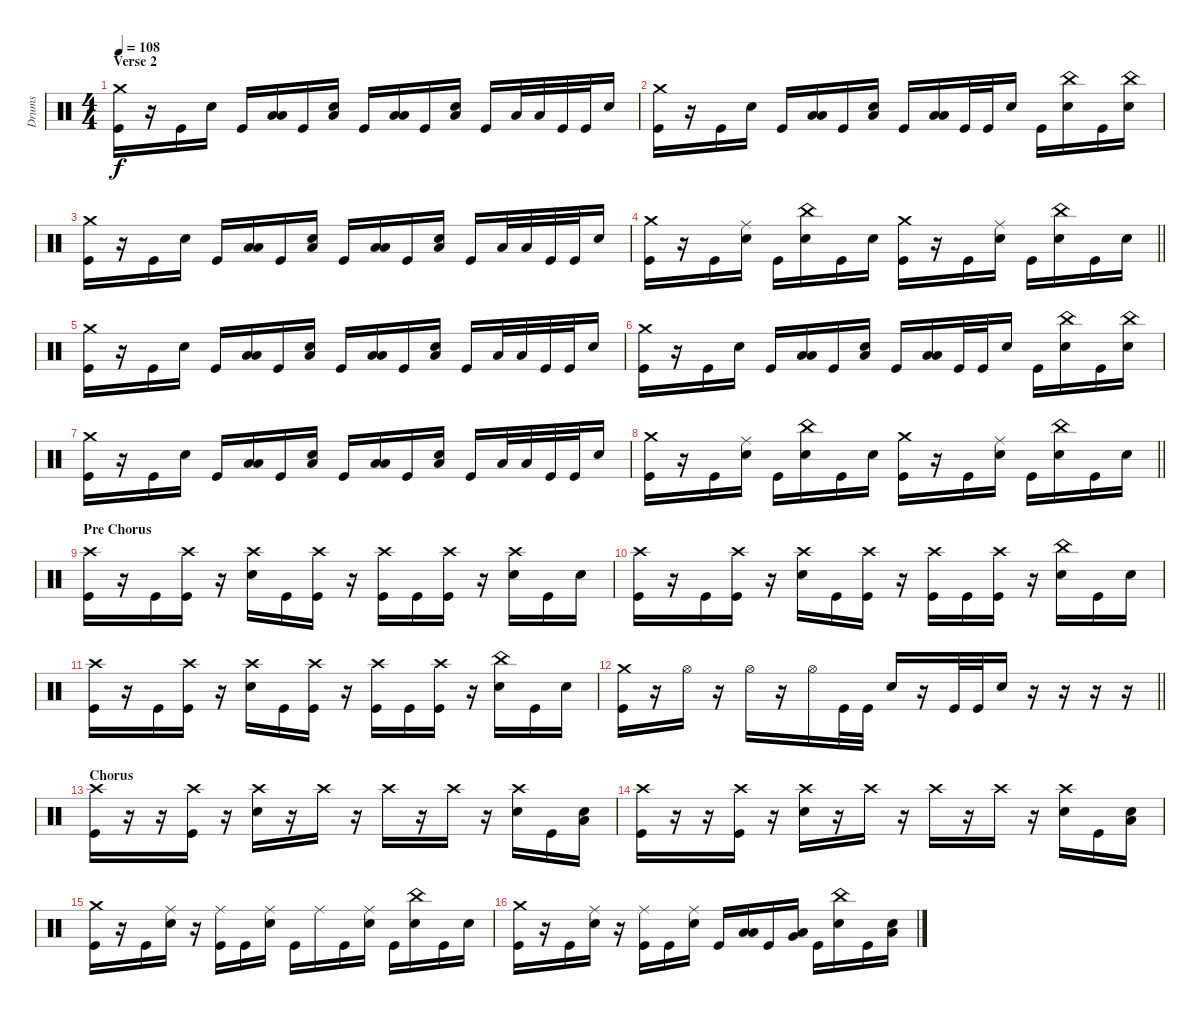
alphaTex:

\track ("Drums" "Drums") {instrument percussion}
\staff {score}
\articulation defaults
\ts (4 4)
\section ("" "Verse 2")
\tempo 108
\clef neutral
\ks c
("Crash medium (hit)" "Kick (hit)").16{dy f} r.16 "Kick (hit)".16 "Snare (hit) 2".16 "Kick (hit)".16 ("Low Tom (hit)" "Low Floor Tom (hit)").16 "Kick (hit)".16 ("Snare (hit) 2" "Low Floor Tom (hit)").16 "Kick (hit)".16 ("Low Tom (hit)" "Low Floor Tom (hit)").16 "Kick (hit)".16 ("Snare (hit) 2" "Low Floor Tom (hit)").16 "Kick (hit)".16 "Low Tom (hit)".32 "Low Floor Tom (hit)".32 "Kick (hit)".32 "Kick (hit)".32 "Snare (hit) 2".16 |
("Crash medium (hit)" "Kick (hit)").16 r.16 "Kick (hit)".16 "Snare (hit) 2".16 "Kick (hit)".16 ("Low Tom (hit)" "Low Floor Tom (hit)").16 "Kick (hit)".16 ("Snare (hit) 2" "Low Floor Tom (hit)").16 "Kick (hit)".16 ("Low Tom (hit)" "Low Floor Tom (hit)").16 "Kick (hit)".32 "Kick (hit)".32 "Snare (hit) 2".16 "Kick (hit)".16 ("China (hit)" "Snare (hit) 2").16 "Kick (hit)".16 ("China (hit)" "Snare (hit) 2").16 |
("Crash medium (hit)" "Kick (hit)").16 r.16 "Kick (hit)".16 "Snare (hit) 2".16 "Kick (hit)".16 ("Low Tom (hit)" "Low Floor Tom (hit)").16 "Kick (hit)".16 ("Snare (hit) 2" "Low Floor Tom (hit)").16 "Kick (hit)".16 ("Low Tom (hit)" "Low Floor Tom (hit)").16 "Kick (hit)".16 ("Snare (hit) 2" "Low Floor Tom (hit)").16 "Kick (hit)".16 "Low Tom (hit)".32 "Low Floor Tom (hit)".32 "Kick (hit)".32 "Kick (hit)".32 "Snare (hit) 2".16 |
\barLineRight lightlight
("Crash medium (hit)" "Kick (hit)").16 r.16 "Kick (hit)".16 ("Ride (middle)" "Snare (hit) 2").16 "Kick (hit)".16 ("China (hit)" "Snare (hit) 2").16 "Kick (hit)".16 "Snare (hit) 2".16 ("Crash medium (hit)" "Kick (hit)").16 r.16 "Kick (hit)".16 ("Ride (middle)" "Snare (hit) 2").16 "Kick (hit)".16 ("China (hit)" "Snare (hit) 2").16 "Kick (hit)".16 "Snare (hit) 2".16 |
("Crash medium (hit)" "Kick (hit)").16 r.16 "Kick (hit)".16 "Snare (hit) 2".16 "Kick (hit)".16 ("Low Tom (hit)" "Low Floor Tom (hit)").16 "Kick (hit)".16 ("Snare (hit) 2" "Low Floor Tom (hit)").16 "Kick (hit)".16 ("Low Tom (hit)" "Low Floor Tom (hit)").16 "Kick (hit)".16 ("Snare (hit) 2" "Low Floor Tom (hit)").16 "Kick (hit)".16 "Low Tom (hit)".32 "Low Floor Tom (hit)".32 "Kick (hit)".32 "Kick (hit)".32 "Snare (hit) 2".16 |
("Crash medium (hit)" "Kick (hit)").16 r.16 "Kick (hit)".16 "Snare (hit) 2".16 "Kick (hit)".16 ("Low Tom (hit)" "Low Floor Tom (hit)").16 "Kick (hit)".16 ("Snare (hit) 2" "Low Floor Tom (hit)").16 "Kick (hit)".16 ("Low Tom (hit)" "Low Floor Tom (hit)").16 "Kick (hit)".32 "Kick (hit)".32 "Snare (hit) 2".16 "Kick (hit)".16 ("China (hit)" "Snare (hit) 2").16 "Kick (hit)".16 ("China (hit)" "Snare (hit) 2").16 |
("Crash medium (hit)" "Kick (hit)").16 r.16 "Kick (hit)".16 "Snare (hit) 2".16 "Kick (hit)".16 ("Low Tom (hit)" "Low Floor Tom (hit)").16 "Kick (hit)".16 ("Snare (hit) 2" "Low Floor Tom (hit)").16 "Kick (hit)".16 ("Low Tom (hit)" "Low Floor Tom (hit)").16 "Kick (hit)".16 ("Snare (hit) 2" "Low Floor Tom (hit)").16 "Kick (hit)".16 "Low Tom (hit)".32 "Low Floor Tom (hit)".32 "Kick (hit)".32 "Kick (hit)".32 "Snare (hit) 2".16 |
\barLineRight lightlight
("Crash medium (hit)" "Kick (hit)").16 r.16 "Kick (hit)".16 ("Ride (middle)" "Snare (hit) 2").16 "Kick (hit)".16 ("China (hit)" "Snare (hit) 2").16 "Kick (hit)".16 "Snare (hit) 2".16 ("Crash medium (hit)" "Kick (hit)").16 r.16 "Kick (hit)".16 ("Ride (middle)" "Snare (hit) 2").16 "Kick (hit)".16 ("China (hit)" "Snare (hit) 2").16 "Kick (hit)".16 "Snare (hit) 2".16 |
\section ("" "Pre Chorus")
("Crash high (hit)" "Kick (hit)").16 r.16 "Kick (hit)".16 ("Crash high (hit)" "Kick (hit)").16 r.16 ("Crash high (hit)" "Snare (hit) 2").16 "Kick (hit)".16 ("Crash high (hit)" "Kick (hit)").16 r.16 ("Crash high (hit)" "Kick (hit)").16 "Kick (hit)".16 ("Crash high (hit)" "Kick (hit)").16 r.16 ("Crash high (hit)" "Snare (hit) 2").16 "Kick (hit)".16 "Snare (hit) 2".16 |
("Crash high (hit)" "Kick (hit)").16 r.16 "Kick (hit)".16 ("Crash high (hit)" "Kick (hit)").16 r.16 ("Crash high (hit)" "Snare (hit) 2").16 "Kick (hit)".16 ("Crash high (hit)" "Kick (hit)").16 r.16 ("Crash high (hit)" "Kick (hit)").16 "Kick (hit)".16 ("Crash high (hit)" "Kick (hit)").16 r.16 ("China (hit)" "Snare (hit) 2").16 "Kick (hit)".16 "Snare (hit) 2".16 |
("Crash high (hit)" "Kick (hit)").16 r.16 "Kick (hit)".16 ("Crash high (hit)" "Kick (hit)").16 r.16 ("Crash high (hit)" "Snare (hit) 2").16 "Kick (hit)".16 ("Crash high (hit)" "Kick (hit)").16 r.16 ("Crash high (hit)" "Kick (hit)").16 "Kick (hit)".16 ("Crash high (hit)" "Kick (hit)").16 r.16 ("China (hit)" "Snare (hit) 2").16 "Kick (hit)".16 "Snare (hit) 2".16 |
\barLineRight lightlight
("Crash medium (hit)" "Kick (hit)").16 r.16 "Hi-Hat (open)".16 r.16 "Hi-Hat (open)".16 r.16 "Hi-Hat (open)".16 "Kick (hit)".32 "Kick (hit)".32 "Snare (hit) 2".16 r.16 "Kick (hit)".32 "Kick (hit)".32 "Snare (hit) 2".16 r.16 r.16 r.16 r.16 |
\section ("" "Chorus")
("Crash high (hit)" "Kick (hit)").16 r.16 r.16 ("Crash high (hit)" "Kick (hit)").16 r.16 ("Crash high (hit)" "Snare (hit) 2").16 r.16 "Crash high (hit)".16 r.16 "Crash high (hit)".16 r.16 "Crash high (hit)".16 r.16 ("Crash high (hit)" "Snare (hit) 2").16 "Kick (hit)".16 ("Snare (hit) 2" "Low Floor Tom (hit)").16 |
("Crash high (hit)" "Kick (hit)").16 r.16 r.16 ("Crash high (hit)" "Kick (hit)").16 r.16 ("Crash high (hit)" "Snare (hit) 2").16 r.16 "Crash high (hit)".16 r.16 "Crash high (hit)".16 r.16 "Crash high (hit)".16 r.16 ("Crash high (hit)" "Snare (hit) 2").16 "Kick (hit)".16 ("Snare (hit) 2" "Low Floor Tom (hit)").16 |
("Crash medium (hit)" "Kick (hit)").16 r.16 "Kick (hit)".16 ("Ride (middle)" "Snare (hit) 2").16 r.16 ("Ride (middle)" "Kick (hit)").16 "Kick (hit)".16 ("Ride (middle)" "Snare (hit) 2").16 "Kick (hit)".16 "Ride (middle)".16 "Kick (hit)".16 ("Ride (middle)" "Snare (hit) 2").16 "Kick (hit)".16 ("China (hit)" "Snare (hit) 2").16 "Kick (hit)".16 "Snare (hit) 2".16 |
("Crash medium (hit)" "Kick (hit)").16 r.16 "Kick (hit)".16 ("Ride (middle)" "Snare (hit) 2").16 r.16 ("Ride (middle)" "Kick (hit)").16 "Kick (hit)".16 ("Ride (middle)" "Snare (hit) 2").16 "Kick (hit)".16 ("Low Tom (hit)" "Low Floor Tom (hit)").16 "Kick (hit)".16 ("Very Low Tom (hit)" "Low Floor Tom (hit)").16 "Kick (hit)".16 ("China (hit)" "Snare (hit) 2").16 "Kick (hit)".16 ("Snare (hit) 2" "Low Floor Tom (hit)").16
